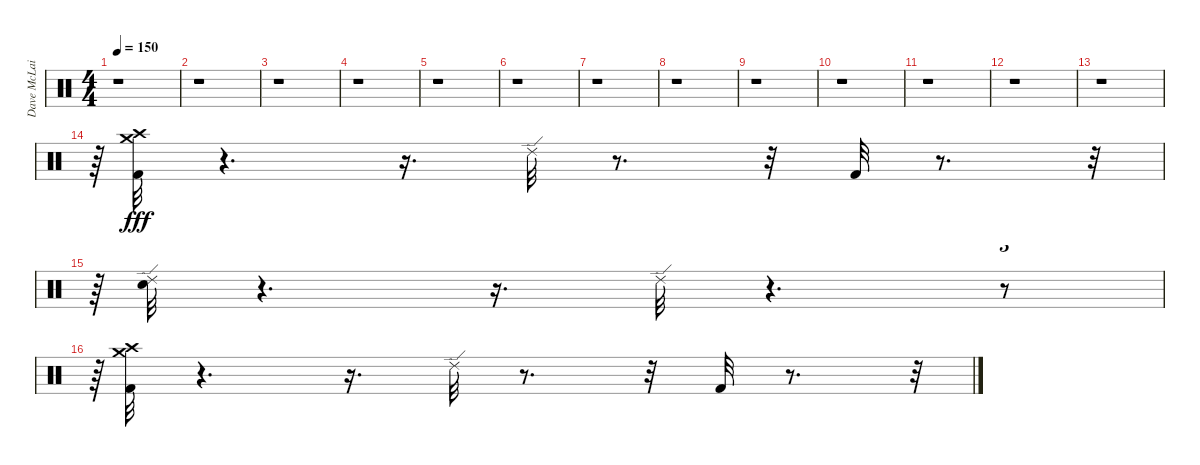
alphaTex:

\track ("Dave McLain" "Dave McLai") {instrument percussion}
\staff {score}
\articulation defaults
\ts (4 4)
\tempo 150
\clef neutral
\ks c
r.1{dy fff} |
r.1 |
r.1 |
r.1 |
r.1 |
r.1 |
r.1 |
r.1 |
r.1 |
r.1 |
r.1 |
r.1 |
r.1 |
r.64{tu (3 2)} ("Crash medium (hit)" "Crash high (hit)" "Kick (hit) 2").32 r.4{d} r.16{d} "Ride (edge) 2".32 r.8{d} r.32 "Kick (hit) 2".32 r.8{d} r.32{tu (3 2)} |
r.64{tu (3 2)} ("Ride (edge) 2" "Snare (hit) 2").32 r.4{d} r.16{d} "Ride (edge) 2".32 r.4{d} r.8{tu (3 2)} |
r.64{tu (3 2)} ("Crash high (hit)" "Crash medium (hit)" "Kick (hit) 2").32 r.4{d} r.16{d} "Ride (edge) 2".32 r.8{d} r.32 "Kick (hit) 2".32 r.8{d} r.32{tu (3 2)}
